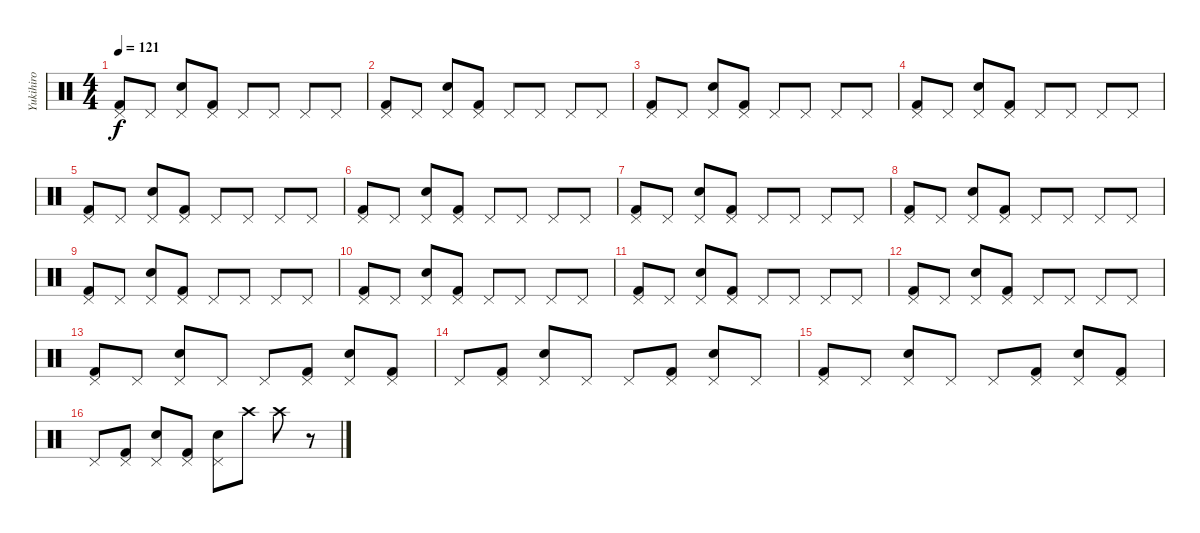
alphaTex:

\track ("Yukihiro" "Yukihiro") {instrument percussion}
\staff {score}
\articulation defaults
\ts (4 4)
\tempo 121
\clef neutral
\ks c
("Pedal Hi-Hat (hit)" "Kick (hit) 2").8{dy f} "Pedal Hi-Hat (hit)".8 ("Pedal Hi-Hat (hit)" "Electric Snare (hit)").8 ("Pedal Hi-Hat (hit)" "Kick (hit) 2").8 "Pedal Hi-Hat (hit)".8 "Pedal Hi-Hat (hit)".8 "Pedal Hi-Hat (hit)".8 "Pedal Hi-Hat (hit)".8 |
("Pedal Hi-Hat (hit)" "Kick (hit) 2").8 "Pedal Hi-Hat (hit)".8 ("Pedal Hi-Hat (hit)" "Electric Snare (hit)").8 ("Pedal Hi-Hat (hit)" "Kick (hit) 2").8 "Pedal Hi-Hat (hit)".8 "Pedal Hi-Hat (hit)".8 "Pedal Hi-Hat (hit)".8 "Pedal Hi-Hat (hit)".8 |
("Pedal Hi-Hat (hit)" "Kick (hit) 2").8 "Pedal Hi-Hat (hit)".8 ("Pedal Hi-Hat (hit)" "Electric Snare (hit)").8 ("Pedal Hi-Hat (hit)" "Kick (hit) 2").8 "Pedal Hi-Hat (hit)".8 "Pedal Hi-Hat (hit)".8 "Pedal Hi-Hat (hit)".8 "Pedal Hi-Hat (hit)".8 |
("Pedal Hi-Hat (hit)" "Kick (hit) 2").8 "Pedal Hi-Hat (hit)".8 ("Pedal Hi-Hat (hit)" "Electric Snare (hit)").8 ("Pedal Hi-Hat (hit)" "Kick (hit) 2").8 "Pedal Hi-Hat (hit)".8 "Pedal Hi-Hat (hit)".8 "Pedal Hi-Hat (hit)".8 "Pedal Hi-Hat (hit)".8 |
("Pedal Hi-Hat (hit)" "Kick (hit) 2").8 "Pedal Hi-Hat (hit)".8 ("Pedal Hi-Hat (hit)" "Electric Snare (hit)").8 ("Pedal Hi-Hat (hit)" "Kick (hit) 2").8 "Pedal Hi-Hat (hit)".8 "Pedal Hi-Hat (hit)".8 "Pedal Hi-Hat (hit)".8 "Pedal Hi-Hat (hit)".8 |
("Pedal Hi-Hat (hit)" "Kick (hit) 2").8 "Pedal Hi-Hat (hit)".8 ("Pedal Hi-Hat (hit)" "Electric Snare (hit)").8 ("Pedal Hi-Hat (hit)" "Kick (hit) 2").8 "Pedal Hi-Hat (hit)".8 "Pedal Hi-Hat (hit)".8 "Pedal Hi-Hat (hit)".8 "Pedal Hi-Hat (hit)".8 |
("Pedal Hi-Hat (hit)" "Kick (hit) 2").8 "Pedal Hi-Hat (hit)".8 ("Pedal Hi-Hat (hit)" "Electric Snare (hit)").8 ("Pedal Hi-Hat (hit)" "Kick (hit) 2").8 "Pedal Hi-Hat (hit)".8 "Pedal Hi-Hat (hit)".8 "Pedal Hi-Hat (hit)".8 "Pedal Hi-Hat (hit)".8 |
("Pedal Hi-Hat (hit)" "Kick (hit) 2").8 "Pedal Hi-Hat (hit)".8 ("Pedal Hi-Hat (hit)" "Electric Snare (hit)").8 ("Pedal Hi-Hat (hit)" "Kick (hit) 2").8 "Pedal Hi-Hat (hit)".8 "Pedal Hi-Hat (hit)".8 "Pedal Hi-Hat (hit)".8 "Pedal Hi-Hat (hit)".8 |
("Pedal Hi-Hat (hit)" "Kick (hit) 2").8 "Pedal Hi-Hat (hit)".8 ("Pedal Hi-Hat (hit)" "Electric Snare (hit)").8 ("Pedal Hi-Hat (hit)" "Kick (hit) 2").8 "Pedal Hi-Hat (hit)".8 "Pedal Hi-Hat (hit)".8 "Pedal Hi-Hat (hit)".8 "Pedal Hi-Hat (hit)".8 |
("Pedal Hi-Hat (hit)" "Kick (hit) 2").8 "Pedal Hi-Hat (hit)".8 ("Pedal Hi-Hat (hit)" "Electric Snare (hit)").8 ("Pedal Hi-Hat (hit)" "Kick (hit) 2").8 "Pedal Hi-Hat (hit)".8 "Pedal Hi-Hat (hit)".8 "Pedal Hi-Hat (hit)".8 "Pedal Hi-Hat (hit)".8 |
("Pedal Hi-Hat (hit)" "Kick (hit) 2").8 "Pedal Hi-Hat (hit)".8 ("Pedal Hi-Hat (hit)" "Electric Snare (hit)").8 ("Pedal Hi-Hat (hit)" "Kick (hit) 2").8 "Pedal Hi-Hat (hit)".8 "Pedal Hi-Hat (hit)".8 "Pedal Hi-Hat (hit)".8 "Pedal Hi-Hat (hit)".8 |
("Pedal Hi-Hat (hit)" "Kick (hit) 2").8 "Pedal Hi-Hat (hit)".8 ("Pedal Hi-Hat (hit)" "Electric Snare (hit)").8 ("Pedal Hi-Hat (hit)" "Kick (hit) 2").8 "Pedal Hi-Hat (hit)".8 "Pedal Hi-Hat (hit)".8 "Pedal Hi-Hat (hit)".8 "Pedal Hi-Hat (hit)".8 |
("Pedal Hi-Hat (hit)" "Kick (hit) 2").8 "Pedal Hi-Hat (hit)".8 ("Pedal Hi-Hat (hit)" "Electric Snare (hit)").8 "Pedal Hi-Hat (hit)".8 "Pedal Hi-Hat (hit)".8 ("Pedal Hi-Hat (hit)" "Kick (hit) 2").8 ("Pedal Hi-Hat (hit)" "Electric Snare (hit)").8 ("Pedal Hi-Hat (hit)" "Kick (hit) 2").8 |
"Pedal Hi-Hat (hit)".8 ("Pedal Hi-Hat (hit)" "Kick (hit) 2").8 ("Pedal Hi-Hat (hit)" "Electric Snare (hit)").8 "Pedal Hi-Hat (hit)".8 "Pedal Hi-Hat (hit)".8 ("Pedal Hi-Hat (hit)" "Kick (hit) 2").8 ("Pedal Hi-Hat (hit)" "Electric Snare (hit)").8 "Pedal Hi-Hat (hit)".8 |
("Pedal Hi-Hat (hit)" "Kick (hit) 2").8 "Pedal Hi-Hat (hit)".8 ("Pedal Hi-Hat (hit)" "Electric Snare (hit)").8 "Pedal Hi-Hat (hit)".8 "Pedal Hi-Hat (hit)".8 ("Pedal Hi-Hat (hit)" "Kick (hit) 2").8 ("Pedal Hi-Hat (hit)" "Electric Snare (hit)").8 ("Pedal Hi-Hat (hit)" "Kick (hit) 2").8 |
"Pedal Hi-Hat (hit)".8 ("Pedal Hi-Hat (hit)" "Kick (hit) 2").8 ("Pedal Hi-Hat (hit)" "Electric Snare (hit)").8 ("Pedal Hi-Hat (hit)" "Kick (hit) 2").8 ("Pedal Hi-Hat (hit)" "Electric Snare (hit)").8 "Crash high (hit)".8 "Crash high (hit)".8 r.8
